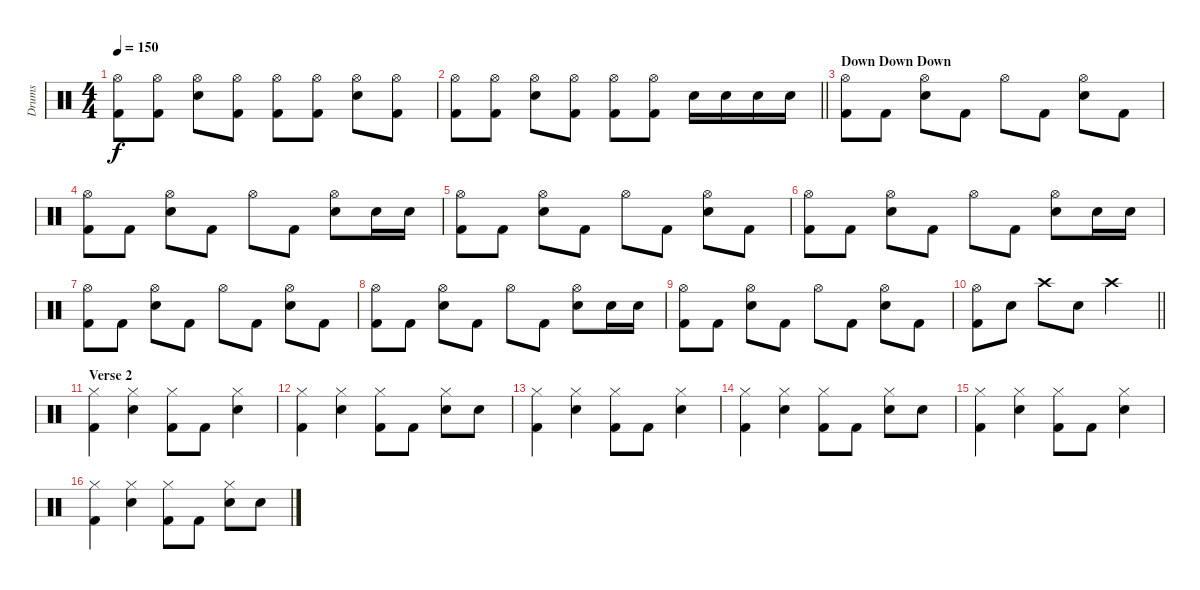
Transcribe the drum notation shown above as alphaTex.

\track ("Drums" "Drums") {instrument percussion}
\staff {score}
\articulation defaults
\ts (4 4)
\tempo 150
\clef neutral
\ks c
("Hi-Hat (open)" "Kick (hit) 2").8{dy f} ("Hi-Hat (open)" "Kick (hit) 2").8 ("Snare (hit) 2" "Hi-Hat (open)").8 ("Hi-Hat (open)" "Kick (hit) 2").8 ("Hi-Hat (open)" "Kick (hit) 2").8 ("Hi-Hat (open)" "Kick (hit) 2").8 ("Snare (hit) 2" "Hi-Hat (open)").8 ("Hi-Hat (open)" "Kick (hit) 2").8 |
\barLineRight lightlight
("Hi-Hat (open)" "Kick (hit) 2").8 ("Hi-Hat (open)" "Kick (hit) 2").8 ("Snare (hit) 2" "Hi-Hat (open)").8 ("Hi-Hat (open)" "Kick (hit) 2").8 ("Hi-Hat (open)" "Kick (hit) 2").8 ("Hi-Hat (open)" "Kick (hit) 2").8 "Snare (hit) 2".16 "Snare (hit) 2".16 "Snare (hit) 2".16 "Snare (hit) 2".16 |
\section ("" "Down Down Down")
("Hi-Hat (open)" "Kick (hit) 2").8 "Kick (hit) 2".8 ("Hi-Hat (open)" "Snare (hit) 2").8 "Kick (hit) 2".8 "Hi-Hat (open)".8 "Kick (hit) 2".8 ("Hi-Hat (open)" "Snare (hit) 2").8 "Kick (hit) 2".8 |
("Hi-Hat (open)" "Kick (hit) 2").8 "Kick (hit) 2".8 ("Hi-Hat (open)" "Snare (hit) 2").8 "Kick (hit) 2".8 "Hi-Hat (open)".8 "Kick (hit) 2".8 ("Hi-Hat (open)" "Snare (hit) 2").8 "Snare (hit) 2".16 "Snare (hit) 2".16 |
("Hi-Hat (open)" "Kick (hit) 2").8 "Kick (hit) 2".8 ("Hi-Hat (open)" "Snare (hit) 2").8 "Kick (hit) 2".8 "Hi-Hat (open)".8 "Kick (hit) 2".8 ("Hi-Hat (open)" "Snare (hit) 2").8 "Kick (hit) 2".8 |
("Hi-Hat (open)" "Kick (hit) 2").8 "Kick (hit) 2".8 ("Hi-Hat (open)" "Snare (hit) 2").8 "Kick (hit) 2".8 "Hi-Hat (open)".8 "Kick (hit) 2".8 ("Hi-Hat (open)" "Snare (hit) 2").8 "Snare (hit) 2".16 "Snare (hit) 2".16 |
("Hi-Hat (open)" "Kick (hit) 2").8 "Kick (hit) 2".8 ("Hi-Hat (open)" "Snare (hit) 2").8 "Kick (hit) 2".8 "Hi-Hat (open)".8 "Kick (hit) 2".8 ("Hi-Hat (open)" "Snare (hit) 2").8 "Kick (hit) 2".8 |
("Hi-Hat (open)" "Kick (hit) 2").8 "Kick (hit) 2".8 ("Hi-Hat (open)" "Snare (hit) 2").8 "Kick (hit) 2".8 "Hi-Hat (open)".8 "Kick (hit) 2".8 ("Hi-Hat (open)" "Snare (hit) 2").8 "Snare (hit) 2".16 "Snare (hit) 2".16 |
("Hi-Hat (open)" "Kick (hit) 2").8 "Kick (hit) 2".8 ("Hi-Hat (open)" "Snare (hit) 2").8 "Kick (hit) 2".8 "Hi-Hat (open)".8 "Kick (hit) 2".8 ("Hi-Hat (open)" "Snare (hit) 2").8 "Kick (hit) 2".8 |
\barLineRight lightlight
("Hi-Hat (open)" "Kick (hit) 2").8 "Snare (hit) 2".8 "Crash high (hit)".8 "Snare (hit) 2".8 "Crash high (hit)".2 |
\section ("" "Verse 2")
("Hi-Hat (closed)" "Kick (hit) 2").4 ("Snare (hit) 2" "Hi-Hat (closed)").4 ("Hi-Hat (closed)" "Kick (hit) 2").8 "Kick (hit) 2".8 ("Snare (hit) 2" "Hi-Hat (closed)").4 |
("Hi-Hat (closed)" "Kick (hit) 2").4 ("Snare (hit) 2" "Hi-Hat (closed)").4 ("Hi-Hat (closed)" "Kick (hit) 2").8 "Kick (hit) 2".8 ("Snare (hit) 2" "Hi-Hat (closed)").8 "Snare (hit) 2".8 |
("Hi-Hat (closed)" "Kick (hit) 2").4 ("Snare (hit) 2" "Hi-Hat (closed)").4 ("Hi-Hat (closed)" "Kick (hit) 2").8 "Kick (hit) 2".8 ("Snare (hit) 2" "Hi-Hat (closed)").4 |
("Hi-Hat (closed)" "Kick (hit) 2").4 ("Snare (hit) 2" "Hi-Hat (closed)").4 ("Hi-Hat (closed)" "Kick (hit) 2").8 "Kick (hit) 2".8 ("Snare (hit) 2" "Hi-Hat (closed)").8 "Snare (hit) 2".8 |
("Hi-Hat (closed)" "Kick (hit) 2").4 ("Snare (hit) 2" "Hi-Hat (closed)").4 ("Hi-Hat (closed)" "Kick (hit) 2").8 "Kick (hit) 2".8 ("Snare (hit) 2" "Hi-Hat (closed)").4 |
("Hi-Hat (closed)" "Kick (hit) 2").4 ("Snare (hit) 2" "Hi-Hat (closed)").4 ("Hi-Hat (closed)" "Kick (hit) 2").8 "Kick (hit) 2".8 ("Snare (hit) 2" "Hi-Hat (closed)").8 "Snare (hit) 2".8
